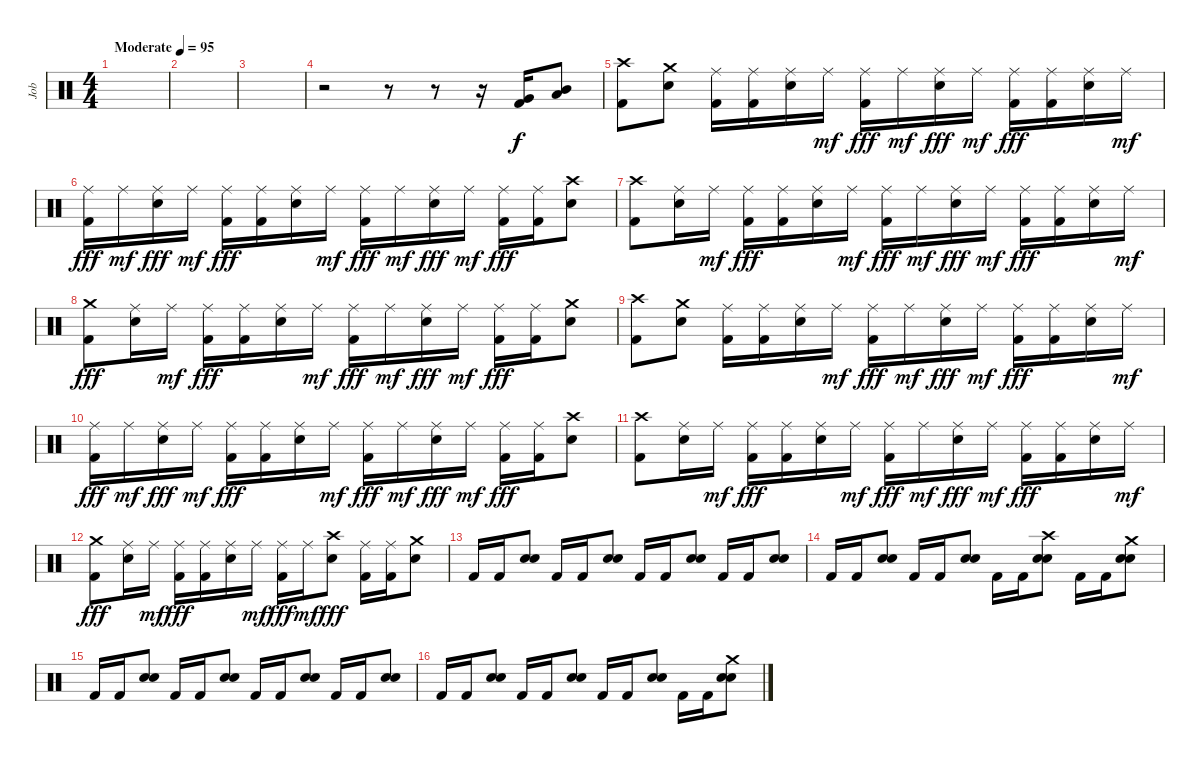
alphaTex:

\track ("Job" "Job") {instrument percussion}
\staff {score}
\articulation defaults
\ts (4 4)
\tempo (95 "Moderate")
\clef neutral
\ks c
|
|
|
r.2 r.8 r.8 r.16 ("Very Low Tom (hit)" "Kick (hit) 2").16 ("Mid Tom (hit)" "Low Tom (hit)").8 |
("Crash high (hit)" "Kick (hit) 2").8 ("Crash medium (hit)" "Electric Snare (hit)").8 ("Ride (middle)" "Kick (hit) 2").16 ("Ride (middle)" "Kick (hit) 2").16 ("Ride (middle)" "Electric Snare (hit)").16 "Ride (middle)".16{dy mf} ("Ride (middle)" "Kick (hit) 2").16{dy fff} "Ride (middle)".16{dy mf} ("Ride (middle)" "Electric Snare (hit)").16{dy fff} "Ride (middle)".16{dy mf} ("Ride (middle)" "Kick (hit) 2").16{dy fff} ("Ride (middle)" "Kick (hit) 2").16 ("Ride (middle)" "Electric Snare (hit)").16 "Ride (middle)".16{dy mf} |
("Ride (middle)" "Kick (hit) 2").16{dy fff} "Ride (middle)".16{dy mf} ("Ride (middle)" "Electric Snare (hit)").16{dy fff} "Ride (middle)".16{dy mf} ("Ride (middle)" "Kick (hit) 2").16{dy fff} ("Ride (middle)" "Kick (hit) 2").16 ("Ride (middle)" "Electric Snare (hit)").16 "Ride (middle)".16{dy mf} ("Ride (middle)" "Kick (hit) 2").16{dy fff} "Ride (middle)".16{dy mf} ("Ride (middle)" "Electric Snare (hit)").16{dy fff} "Ride (middle)".16{dy mf} ("Ride (middle)" "Kick (hit) 2").16{dy fff} ("Ride (middle)" "Kick (hit) 2").16 ("Crash high (hit)" "Electric Snare (hit)").8 |
("Crash high (hit)" "Kick (hit) 2").8 ("Ride (middle)" "Electric Snare (hit)").16 "Ride (middle)".16{dy mf} ("Ride (middle)" "Kick (hit) 2").16{dy fff} ("Ride (middle)" "Kick (hit) 2").16 ("Ride (middle)" "Electric Snare (hit)").16 "Ride (middle)".16{dy mf} ("Ride (middle)" "Kick (hit) 2").16{dy fff} "Ride (middle)".16{dy mf} ("Ride (middle)" "Electric Snare (hit)").16{dy fff} "Ride (middle)".16{dy mf} ("Ride (middle)" "Kick (hit) 2").16{dy fff} ("Ride (middle)" "Kick (hit) 2").16 ("Ride (middle)" "Electric Snare (hit)").16 "Ride (middle)".16{dy mf} |
("Crash medium (hit)" "Kick (hit) 2").8{dy fff} ("Ride (middle)" "Electric Snare (hit)").16 "Ride (middle)".16{dy mf} ("Ride (middle)" "Kick (hit) 2").16{dy fff} ("Ride (middle)" "Kick (hit) 2").16 ("Ride (middle)" "Electric Snare (hit)").16 "Ride (middle)".16{dy mf} ("Ride (middle)" "Kick (hit) 2").16{dy fff} "Ride (middle)".16{dy mf} ("Ride (middle)" "Electric Snare (hit)").16{dy fff} "Ride (middle)".16{dy mf} ("Ride (middle)" "Kick (hit) 2").16{dy fff} ("Ride (middle)" "Kick (hit) 2").16 ("Crash medium (hit)" "Electric Snare (hit)").8 |
("Crash high (hit)" "Kick (hit) 2").8 ("Crash medium (hit)" "Electric Snare (hit)").8 ("Ride (middle)" "Kick (hit) 2").16 ("Ride (middle)" "Kick (hit) 2").16 ("Ride (middle)" "Electric Snare (hit)").16 "Ride (middle)".16{dy mf} ("Ride (middle)" "Kick (hit) 2").16{dy fff} "Ride (middle)".16{dy mf} ("Ride (middle)" "Electric Snare (hit)").16{dy fff} "Ride (middle)".16{dy mf} ("Ride (middle)" "Kick (hit) 2").16{dy fff} ("Ride (middle)" "Kick (hit) 2").16 ("Ride (middle)" "Electric Snare (hit)").16 "Ride (middle)".16{dy mf} |
("Ride (middle)" "Kick (hit) 2").16{dy fff} "Ride (middle)".16{dy mf} ("Ride (middle)" "Electric Snare (hit)").16{dy fff} "Ride (middle)".16{dy mf} ("Ride (middle)" "Kick (hit) 2").16{dy fff} ("Ride (middle)" "Kick (hit) 2").16 ("Ride (middle)" "Electric Snare (hit)").16 "Ride (middle)".16{dy mf} ("Ride (middle)" "Kick (hit) 2").16{dy fff} "Ride (middle)".16{dy mf} ("Ride (middle)" "Electric Snare (hit)").16{dy fff} "Ride (middle)".16{dy mf} ("Ride (middle)" "Kick (hit) 2").16{dy fff} ("Ride (middle)" "Kick (hit) 2").16 ("Crash high (hit)" "Electric Snare (hit)").8 |
("Crash high (hit)" "Kick (hit) 2").8 ("Ride (middle)" "Electric Snare (hit)").16 "Ride (middle)".16{dy mf} ("Ride (middle)" "Kick (hit) 2").16{dy fff} ("Ride (middle)" "Kick (hit) 2").16 ("Ride (middle)" "Electric Snare (hit)").16 "Ride (middle)".16{dy mf} ("Ride (middle)" "Kick (hit) 2").16{dy fff} "Ride (middle)".16{dy mf} ("Ride (middle)" "Electric Snare (hit)").16{dy fff} "Ride (middle)".16{dy mf} ("Ride (middle)" "Kick (hit) 2").16{dy fff} ("Ride (middle)" "Kick (hit) 2").16 ("Ride (middle)" "Electric Snare (hit)").16 "Ride (middle)".16{dy mf} |
("Crash medium (hit)" "Kick (hit) 2").8{dy fff} ("Ride (middle)" "Electric Snare (hit)").16 "Ride (middle)".16{dy mf} ("Ride (middle)" "Kick (hit) 2").16{dy fff} ("Ride (middle)" "Kick (hit) 2").16 ("Ride (middle)" "Electric Snare (hit)").16 "Ride (middle)".16{dy mf} ("Ride (middle)" "Kick (hit) 2").16{dy fff} "Ride (middle)".16{dy mf} ("Crash high (hit)" "Electric Snare (hit)").8{dy fff} ("Ride (middle)" "Kick (hit) 2").16 ("Ride (middle)" "Kick (hit) 2").16 ("Crash medium (hit)" "Electric Snare (hit)").8 |
"Kick (hit) 2".16 "Kick (hit) 2".16 ("Electric Snare (hit)" "Snare (hit) 2").8 "Kick (hit) 2".16 "Kick (hit) 2".16 ("Electric Snare (hit)" "Snare (hit) 2").8 "Kick (hit) 2".16 "Kick (hit) 2".16 ("Electric Snare (hit)" "Snare (hit) 2").8 "Kick (hit) 2".16 "Kick (hit) 2".16 ("Electric Snare (hit)" "Snare (hit) 2").8 |
"Kick (hit) 2".16 "Kick (hit) 2".16 ("Electric Snare (hit)" "Snare (hit) 2").8 "Kick (hit) 2".16 "Kick (hit) 2".16 ("Electric Snare (hit)" "Snare (hit) 2").8 "Kick (hit) 2".16 "Kick (hit) 2".16 ("Crash high (hit)" "Electric Snare (hit)" "Snare (hit) 2").8 "Kick (hit) 2".16 "Kick (hit) 2".16 ("Crash medium (hit)" "Electric Snare (hit)" "Snare (hit) 2").8 |
"Kick (hit) 2".16 "Kick (hit) 2".16 ("Electric Snare (hit)" "Snare (hit) 2").8 "Kick (hit) 2".16 "Kick (hit) 2".16 ("Electric Snare (hit)" "Snare (hit) 2").8 "Kick (hit) 2".16 "Kick (hit) 2".16 ("Electric Snare (hit)" "Snare (hit) 2").8 "Kick (hit) 2".16 "Kick (hit) 2".16 ("Electric Snare (hit)" "Snare (hit) 2").8 |
"Kick (hit) 2".16 "Kick (hit) 2".16 ("Electric Snare (hit)" "Snare (hit) 2").8 "Kick (hit) 2".16 "Kick (hit) 2".16 ("Electric Snare (hit)" "Snare (hit) 2").8 "Kick (hit) 2".16 "Kick (hit) 2".16 ("Electric Snare (hit)" "Snare (hit) 2").8 "Kick (hit) 2".16 "Kick (hit) 2".16 ("Crash medium (hit)" "Electric Snare (hit)" "Snare (hit) 2").8
